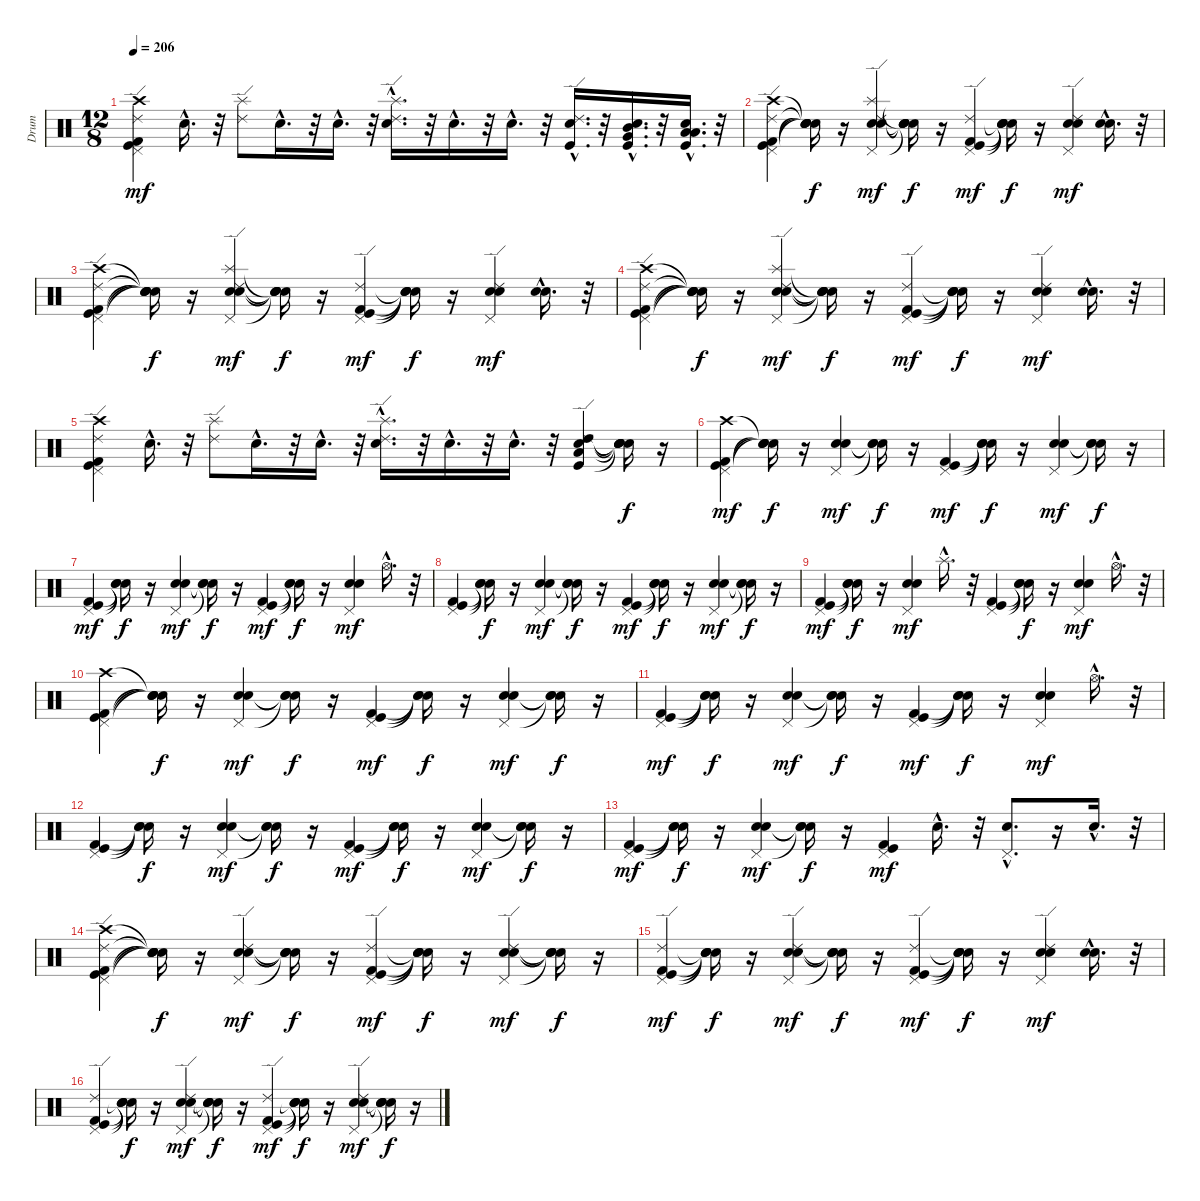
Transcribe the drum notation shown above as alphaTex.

\track ("Drum" "Drum") {instrument percussion}
\staff {score}
\articulation defaults
\ts (12 8)
\tempo 206
\clef neutral
\ks c
("Pedal Hi-Hat (hit)" "Kick (hit)" "Kick (hit) 2" "Ride (edge) 2" "Crash high (hit)").4{dy mf} "Snare (hit) 2"{hac}.16{d} r.32 ("Ride (edge) 2" "Splash (hit)").8 "Snare (hit) 2"{hac}.16{d} r.32 "Snare (hit) 2"{hac}.16{d} r.32 ("Ride (edge) 2"{hac} "Splash (hit)"{hac} "Electric Snare (hit)"{hac}).16{d} r.32 "Electric Snare (hit)"{hac}.16{d} r.32 "Electric Snare (hit)"{hac}.16{d} r.32 ("Ride (edge) 2"{hac} "Kick (hit)"{hac} "Snare (hit) 2"{hac}).16{d} r.32 ("Very Low Tom (hit)"{hac} "Mid Tom (hit)"{hac} "Kick (hit)"{hac} "Snare (hit) 2"{hac}).16{d} r.32 ("Low Floor Tom (hit)"{hac} "Low Tom (hit)"{hac} "Kick (hit)"{hac} "Snare (hit) 2"{hac}).16{d} r.32 |
("Crash high (hit)" "Ride (edge) 2" "Kick (hit) 2" "Kick (hit)" "Pedal Hi-Hat (hit)").4 ("Snare (hit)"{t} "Snare (hit)"{t} "Snare (hit)"{t} "Snare (hit)"{t} "Snare (hit)"{t}).16{dy f} r.16 ("Splash (hit)" "Ride (edge) 2" "Pedal Hi-Hat (hit)" "Electric Snare (hit)" "Snare (hit) 2").4{dy mf} ("Snare (hit)"{t} "Snare (hit)"{t} "Snare (hit)"{t} "Snare (hit)"{t} "Snare (hit)"{t}).16{dy f} r.16 ("Ride (edge) 2" "Kick (hit)" "Kick (hit) 2" "Pedal Hi-Hat (hit)").4{dy mf} ("Snare (hit)"{t} "Snare (hit)"{t} "Snare (hit)"{t} "Snare (hit)"{t}).16{dy f} r.16 ("Ride (edge) 2" "Pedal Hi-Hat (hit)" "Snare (hit) 2" "Electric Snare (hit)").4{dy mf} ("Snare (hit) 2"{hac} "Electric Snare (hit)"{hac}).16{d} r.32 |
("Pedal Hi-Hat (hit)" "Kick (hit)" "Kick (hit) 2" "Ride (edge) 2" "Crash high (hit)").4 ("Snare (hit)"{t} "Snare (hit)"{t} "Snare (hit)"{t} "Snare (hit)"{t} "Snare (hit)"{t}).16{dy f} r.16 ("Snare (hit) 2" "Electric Snare (hit)" "Pedal Hi-Hat (hit)" "Ride (edge) 2" "Splash (hit)").4{dy mf} ("Snare (hit)"{t} "Snare (hit)"{t} "Snare (hit)"{t} "Snare (hit)"{t} "Snare (hit)"{t}).16{dy f} r.16 ("Pedal Hi-Hat (hit)" "Kick (hit) 2" "Kick (hit)" "Ride (edge) 2").4{dy mf} ("Snare (hit)"{t} "Snare (hit)"{t} "Snare (hit)"{t} "Snare (hit)"{t}).16{dy f} r.16 ("Electric Snare (hit)" "Snare (hit) 2" "Pedal Hi-Hat (hit)" "Ride (edge) 2").4{dy mf} ("Electric Snare (hit)"{hac} "Snare (hit) 2"{hac}).16{d} r.32 |
("Crash high (hit)" "Ride (edge) 2" "Kick (hit) 2" "Kick (hit)" "Pedal Hi-Hat (hit)").4 ("Snare (hit)"{t} "Snare (hit)"{t} "Snare (hit)"{t} "Snare (hit)"{t} "Snare (hit)"{t}).16{dy f} r.16 ("Splash (hit)" "Ride (edge) 2" "Pedal Hi-Hat (hit)" "Electric Snare (hit)" "Snare (hit) 2").4{dy mf} ("Snare (hit)"{t} "Snare (hit)"{t} "Snare (hit)"{t} "Snare (hit)"{t} "Snare (hit)"{t}).16{dy f} r.16 ("Ride (edge) 2" "Kick (hit)" "Kick (hit) 2" "Pedal Hi-Hat (hit)").4{dy mf} ("Snare (hit)"{t} "Snare (hit)"{t} "Snare (hit)"{t} "Snare (hit)"{t}).16{dy f} r.16 ("Ride (edge) 2" "Pedal Hi-Hat (hit)" "Snare (hit) 2" "Electric Snare (hit)").4{dy mf} ("Snare (hit) 2"{hac} "Electric Snare (hit)"{hac}).16{d} r.32 |
("Crash high (hit)" "Ride (edge) 2" "Kick (hit) 2" "Kick (hit)" "Pedal Hi-Hat (hit)").4 "Snare (hit) 2"{hac}.16{d} r.32 ("Splash (hit)" "Ride (edge) 2").8 "Snare (hit) 2"{hac}.16{d} r.32 "Snare (hit) 2"{hac}.16{d} r.32 ("Electric Snare (hit)"{hac} "Splash (hit)"{hac} "Ride (edge) 2"{hac}).16{d} r.32 "Electric Snare (hit)"{hac}.16{d} r.32 "Electric Snare (hit)"{hac}.16{d} r.32 ("Low Tom (hit)" "High Tom (hit)" "Snare (hit) 2" "Kick (hit)" "Ride (edge) 2").4 ("Snare (hit)"{t} "Snare (hit)"{t} "Snare (hit)"{t} "Snare (hit)"{t} "Snare (hit)"{t}).16{dy f} r.16 |
("Kick (hit)" "Crash high (hit)" "Pedal Hi-Hat (hit)" "Kick (hit) 2").4{dy mf} ("Snare (hit)"{t} "Snare (hit)"{t} "Snare (hit)"{t} "Snare (hit)"{t}).16{dy f} r.16 ("Electric Snare (hit)" "Snare (hit) 2" "Pedal Hi-Hat (hit)").4{dy mf} ("Snare (hit)"{t} "Snare (hit)"{t} "Snare (hit)"{t}).16{dy f} r.16 ("Kick (hit)" "Pedal Hi-Hat (hit)" "Kick (hit) 2").4{dy mf} ("Snare (hit)"{t} "Snare (hit)"{t} "Snare (hit)"{t}).16{dy f} r.16 ("Snare (hit) 2" "Electric Snare (hit)" "Pedal Hi-Hat (hit)").4{dy mf} ("Snare (hit)"{t} "Snare (hit)"{t} "Snare (hit)"{t}).16{dy f} r.16 |
("Pedal Hi-Hat (hit)" "Kick (hit) 2" "Kick (hit)").4{dy mf} ("Snare (hit)"{t} "Snare (hit)"{t} "Snare (hit)"{t}).16{dy f} r.16 ("Snare (hit) 2" "Pedal Hi-Hat (hit)" "Electric Snare (hit)").4{dy mf} ("Snare (hit)"{t} "Snare (hit)"{t} "Snare (hit)"{t}).16{dy f} r.16 ("Pedal Hi-Hat (hit)" "Kick (hit) 2" "Kick (hit)").4{dy mf} ("Snare (hit)"{t} "Snare (hit)"{t} "Snare (hit)"{t}).16{dy f} r.16 ("Snare (hit) 2" "Electric Snare (hit)" "Pedal Hi-Hat (hit)").4{dy mf} "Hi-Hat (open)"{hac}.16{d} r.32 |
("Kick (hit) 2" "Kick (hit)" "Pedal Hi-Hat (hit)").4 ("Snare (hit)"{t} "Snare (hit)"{t} "Snare (hit)"{t}).16{dy f} r.16 ("Pedal Hi-Hat (hit)" "Electric Snare (hit)" "Snare (hit) 2").4{dy mf} ("Snare (hit)"{t} "Snare (hit)"{t} "Snare (hit)"{t}).16{dy f} r.16 ("Pedal Hi-Hat (hit)" "Kick (hit) 2" "Kick (hit)").4{dy mf} ("Snare (hit)"{t} "Snare (hit)"{t} "Snare (hit)"{t}).16{dy f} r.16 ("Pedal Hi-Hat (hit)" "Snare (hit) 2" "Electric Snare (hit)").4{dy mf} ("Snare (hit)"{t} "Snare (hit)"{t} "Snare (hit)"{t}).16{dy f} r.16 |
("Kick (hit)" "Kick (hit) 2" "Pedal Hi-Hat (hit)").4{dy mf} ("Snare (hit)"{t} "Snare (hit)"{t} "Snare (hit)"{t}).16{dy f} r.16 ("Snare (hit) 2" "Electric Snare (hit)" "Pedal Hi-Hat (hit)").4{dy mf} "Splash (hit)"{hac}.16{d} r.32 ("Pedal Hi-Hat (hit)" "Kick (hit) 2" "Kick (hit)").4 ("Snare (hit)"{t} "Snare (hit)"{t} "Snare (hit)"{t}).16{dy f} r.16 ("Pedal Hi-Hat (hit)" "Electric Snare (hit)" "Snare (hit) 2").4{dy mf} "Hi-Hat (open)"{hac}.16{d} r.32 |
("Kick (hit) 2" "Pedal Hi-Hat (hit)" "Crash high (hit)" "Kick (hit)").4 ("Snare (hit)"{t} "Snare (hit)"{t} "Snare (hit)"{t} "Snare (hit)"{t}).16{dy f} r.16 ("Pedal Hi-Hat (hit)" "Snare (hit) 2" "Electric Snare (hit)").4{dy mf} ("Snare (hit)"{t} "Snare (hit)"{t} "Snare (hit)"{t}).16{dy f} r.16 ("Kick (hit) 2" "Pedal Hi-Hat (hit)" "Kick (hit)").4{dy mf} ("Snare (hit)"{t} "Snare (hit)"{t} "Snare (hit)"{t}).16{dy f} r.16 ("Electric Snare (hit)" "Pedal Hi-Hat (hit)" "Snare (hit) 2").4{dy mf} ("Snare (hit)"{t} "Snare (hit)"{t} "Snare (hit)"{t}).16{dy f} r.16 |
("Kick (hit)" "Kick (hit) 2" "Pedal Hi-Hat (hit)").4{dy mf} ("Snare (hit)"{t} "Snare (hit)"{t} "Snare (hit)"{t}).16{dy f} r.16 ("Electric Snare (hit)" "Pedal Hi-Hat (hit)" "Snare (hit) 2").4{dy mf} ("Snare (hit)"{t} "Snare (hit)"{t} "Snare (hit)"{t}).16{dy f} r.16 ("Kick (hit)" "Kick (hit) 2" "Pedal Hi-Hat (hit)").4{dy mf} ("Snare (hit)"{t} "Snare (hit)"{t} "Snare (hit)"{t}).16{dy f} r.16 ("Pedal Hi-Hat (hit)" "Electric Snare (hit)" "Snare (hit) 2").4{dy mf} "Hi-Hat (open)"{hac}.16{d} r.32 |
("Pedal Hi-Hat (hit)" "Kick (hit)" "Kick (hit) 2").4 ("Snare (hit)"{t} "Snare (hit)"{t} "Snare (hit)"{t}).16{dy f} r.16 ("Snare (hit) 2" "Electric Snare (hit)" "Pedal Hi-Hat (hit)").4{dy mf} ("Snare (hit)"{t} "Snare (hit)"{t} "Snare (hit)"{t}).16{dy f} r.16 ("Kick (hit)" "Kick (hit) 2" "Pedal Hi-Hat (hit)").4{dy mf} ("Snare (hit)"{t} "Snare (hit)"{t} "Snare (hit)"{t}).16{dy f} r.16 ("Electric Snare (hit)" "Snare (hit) 2" "Pedal Hi-Hat (hit)").4{dy mf} ("Snare (hit)"{t} "Snare (hit)"{t} "Snare (hit)"{t}).16{dy f} r.16 |
("Kick (hit) 2" "Pedal Hi-Hat (hit)" "Kick (hit)").4{dy mf} ("Snare (hit)"{t} "Snare (hit)"{t} "Snare (hit)"{t}).16{dy f} r.16 ("Pedal Hi-Hat (hit)" "Electric Snare (hit)" "Snare (hit) 2").4{dy mf} ("Snare (hit)"{t} "Snare (hit)"{t} "Snare (hit)"{t}).16{dy f} r.16 ("Kick (hit) 2" "Pedal Hi-Hat (hit)" "Kick (hit)").4{dy mf} "Snare (hit) 2"{hac}.16{d} r.32 ("Snare (hit) 2"{hac} "Pedal Hi-Hat (hit)"{hac}).8{d} r.16 "Snare (hit) 2"{hac}.16{d} r.32 |
("Pedal Hi-Hat (hit)" "Crash high (hit)" "Kick (hit) 2" "Kick (hit)" "Ride (edge) 2").4 ("Snare (hit)"{t} "Snare (hit)"{t} "Snare (hit)"{t} "Snare (hit)"{t} "Snare (hit)"{t}).16{dy f} r.16 ("Electric Snare (hit)" "Snare (hit) 2" "Pedal Hi-Hat (hit)" "Ride (edge) 2").4{dy mf} ("Snare (hit)"{t} "Snare (hit)"{t} "Snare (hit)"{t} "Snare (hit)"{t}).16{dy f} r.16 ("Kick (hit) 2" "Pedal Hi-Hat (hit)" "Kick (hit)" "Ride (edge) 2").4{dy mf} ("Snare (hit)"{t} "Snare (hit)"{t} "Snare (hit)"{t} "Snare (hit)"{t}).16{dy f} r.16 ("Pedal Hi-Hat (hit)" "Electric Snare (hit)" "Snare (hit) 2" "Ride (edge) 2").4{dy mf} ("Snare (hit)"{t} "Snare (hit)"{t} "Snare (hit)"{t} "Snare (hit)"{t}).16{dy f} r.16 |
("Kick (hit) 2" "Kick (hit)" "Pedal Hi-Hat (hit)" "Ride (edge) 2").4{dy mf} ("Snare (hit)"{t} "Snare (hit)"{t} "Snare (hit)"{t} "Snare (hit)"{t}).16{dy f} r.16 ("Pedal Hi-Hat (hit)" "Electric Snare (hit)" "Snare (hit) 2" "Ride (edge) 2").4{dy mf} ("Snare (hit)"{t} "Snare (hit)"{t} "Snare (hit)"{t} "Snare (hit)"{t}).16{dy f} r.16 ("Kick (hit)" "Kick (hit) 2" "Pedal Hi-Hat (hit)" "Ride (edge) 2").4{dy mf} ("Snare (hit)"{t} "Snare (hit)"{t} "Snare (hit)"{t} "Snare (hit)"{t}).16{dy f} r.16 ("Pedal Hi-Hat (hit)" "Snare (hit) 2" "Electric Snare (hit)" "Ride (edge) 2").4{dy mf} ("Snare (hit) 2"{hac} "Electric Snare (hit)"{hac}).16{d} r.32 |
("Pedal Hi-Hat (hit)" "Kick (hit) 2" "Kick (hit)" "Ride (edge) 2").4 ("Snare (hit)"{t} "Snare (hit)"{t} "Snare (hit)"{t} "Snare (hit)"{t}).16{dy f} r.16 ("Snare (hit) 2" "Electric Snare (hit)" "Pedal Hi-Hat (hit)" "Ride (edge) 2").4{dy mf} ("Snare (hit)"{t} "Snare (hit)"{t} "Snare (hit)"{t} "Snare (hit)"{t}).16{dy f} r.16 ("Pedal Hi-Hat (hit)" "Kick (hit)" "Kick (hit) 2" "Ride (edge) 2").4{dy mf} ("Snare (hit)"{t} "Snare (hit)"{t} "Snare (hit)"{t} "Snare (hit)"{t}).16{dy f} r.16 ("Electric Snare (hit)" "Snare (hit) 2" "Pedal Hi-Hat (hit)" "Ride (edge) 2").4{dy mf} ("Snare (hit)"{t} "Snare (hit)"{t} "Snare (hit)"{t} "Snare (hit)"{t}).16{dy f} r.16
